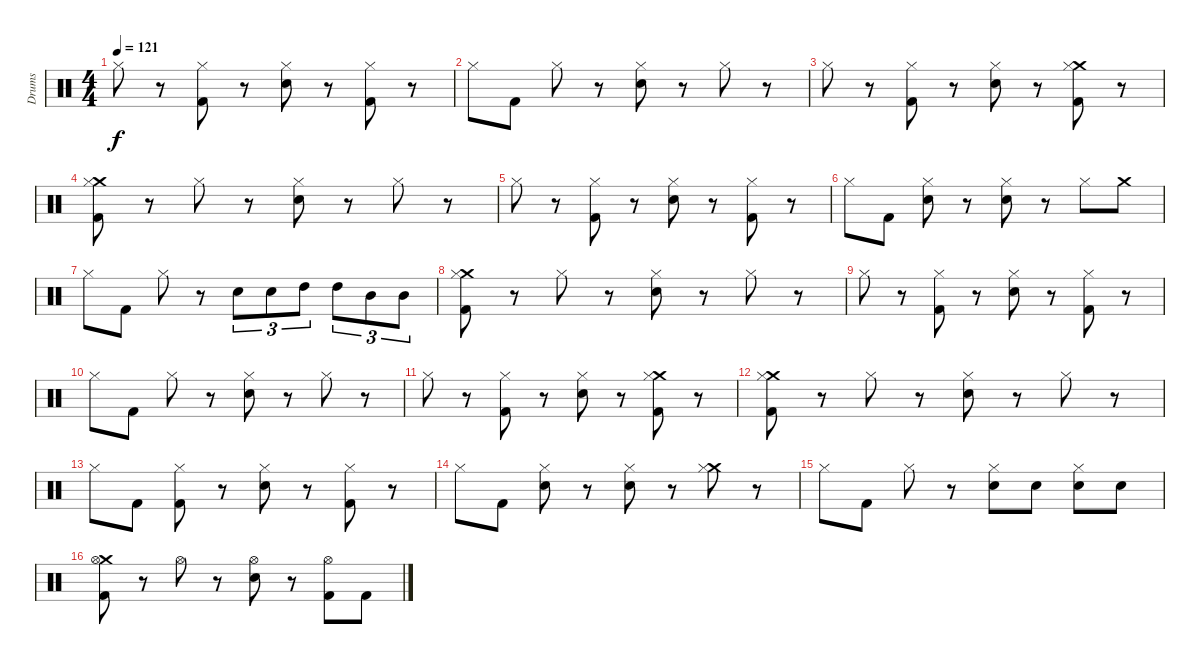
\track ("Drums" "Drums") {instrument percussion}
\staff {score}
\articulation defaults
\ts (4 4)
\tempo 121
\clef neutral
\ks c "Hi-Hat (closed)".8{dy f}
r.8 ("Hi-Hat (closed)" "Kick (hit) 2").8 r.8 ("Electric Snare (hit)" "Hi-Hat (closed)").8 r.8 ("Hi-Hat (closed)" "Kick (hit) 2").8 r.8 |
"Hi-Hat (closed)".8 "Kick (hit) 2".8 "Hi-Hat (closed)".8 r.8 ("Electric Snare (hit)" "Hi-Hat (closed)").8 r.8 "Hi-Hat (closed)".8 r.8 |
"Hi-Hat (closed)".8 r.8 ("Hi-Hat (closed)" "Kick (hit) 2").8 r.8 ("Electric Snare (hit)" "Hi-Hat (closed)").8 r.8 ("Crash medium (hit)" "Hi-Hat (closed)" "Kick (hit) 2").8 r.8 |
("Crash medium (hit)" "Hi-Hat (closed)" "Kick (hit) 2").8 r.8 "Hi-Hat (closed)".8 r.8 ("Electric Snare (hit)" "Hi-Hat (closed)").8 r.8 "Hi-Hat (closed)".8 r.8 |
"Hi-Hat (closed)".8 r.8 ("Hi-Hat (closed)" "Kick (hit) 2").8 r.8 ("Electric Snare (hit)" "Hi-Hat (closed)").8 r.8 ("Hi-Hat (closed)" "Kick (hit) 2").8 r.8 |
"Hi-Hat (closed)".8 "Kick (hit) 2".8 ("Electric Snare (hit)" "Hi-Hat (closed)").8 r.8 ("Electric Snare (hit)" "Hi-Hat (closed)").8 r.8 "Hi-Hat (closed)".8 "Crash medium (hit)".8 |
"Hi-Hat (closed)".8 "Kick (hit) 2".8 "Hi-Hat (closed)".8 r.8 "Electric Snare (hit)".8{tu (3 2)} "Electric Snare (hit)".8{tu (3 2)} "High Tom (hit)".8{tu (3 2)} "High Tom (hit)".8{tu (3 2)} "Mid Tom (hit)".8{tu (3 2)} "Mid Tom (hit)".8{tu (3 2)} |
("Crash medium (hit)" "Hi-Hat (closed)" "Kick (hit) 2").8 r.8 "Hi-Hat (closed)".8 r.8 ("Electric Snare (hit)" "Hi-Hat (closed)").8 r.8 "Hi-Hat (closed)".8 r.8 |
"Hi-Hat (closed)".8 r.8 ("Hi-Hat (closed)" "Kick (hit) 2").8 r.8 ("Electric Snare (hit)" "Hi-Hat (closed)").8 r.8 ("Hi-Hat (closed)" "Kick (hit) 2").8 r.8 |
"Hi-Hat (closed)".8 "Kick (hit) 2".8 "Hi-Hat (closed)".8 r.8 ("Electric Snare (hit)" "Hi-Hat (closed)").8 r.8 "Hi-Hat (closed)".8 r.8 |
"Hi-Hat (closed)".8 r.8 ("Hi-Hat (closed)" "Kick (hit) 2").8 r.8 ("Electric Snare (hit)" "Hi-Hat (closed)").8 r.8 ("Crash medium (hit)" "Hi-Hat (closed)" "Kick (hit) 2").8 r.8 |
("Crash medium (hit)" "Hi-Hat (closed)" "Kick (hit) 2").8 r.8 "Hi-Hat (closed)".8 r.8 ("Electric Snare (hit)" "Hi-Hat (closed)").8 r.8 "Hi-Hat (closed)".8 r.8 |
"Hi-Hat (closed)".8 "Kick (hit) 2".8 ("Hi-Hat (closed)" "Kick (hit) 2").8 r.8 ("Electric Snare (hit)" "Hi-Hat (closed)").8 r.8 ("Hi-Hat (closed)" "Kick (hit) 2").8 r.8 |
"Hi-Hat (closed)".8 "Kick (hit) 2".8 ("Electric Snare (hit)" "Hi-Hat (closed)").8 r.8 ("Electric Snare (hit)" "Hi-Hat (closed)").8 r.8 ("Crash medium (hit)" "Hi-Hat (closed)").8 r.8 |
"Hi-Hat (closed)".8 "Kick (hit) 2".8 "Hi-Hat (closed)".8 r.8 ("Hi-Hat (closed)" "Electric Snare (hit)").8 "Electric Snare (hit)".8 ("Hi-Hat (closed)" "Electric Snare (hit)").8 "Electric Snare (hit)".8 |
("Crash medium (hit)" "Hi-Hat (open)" "Kick (hit) 2").8 r.8 "Hi-Hat (open)".8 r.8 ("Electric Snare (hit)" "Hi-Hat (open)").8 r.8 ("Hi-Hat (open)" "Kick (hit) 2").8 "Kick (hit) 2".8
